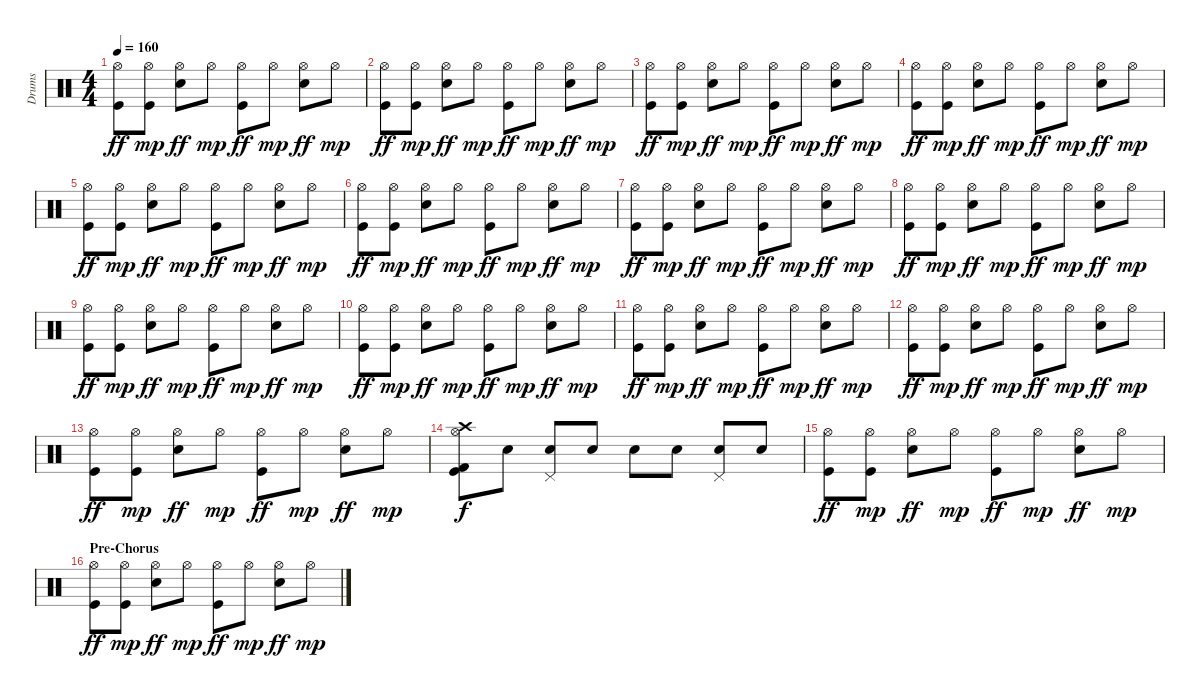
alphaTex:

\track ("Drums" "Drums") {instrument percussion}
\staff {score}
\articulation defaults
\ts (4 4)
\tempo 160
\clef neutral
\ks c
("Kick (hit)" "Hi-Hat (open)").8{dy ff} ("Kick (hit)" "Hi-Hat (open)").8{dy mp} ("Electric Snare (hit)" "Hi-Hat (open)").8{dy ff} "Hi-Hat (open)".8{dy mp} ("Kick (hit)" "Hi-Hat (open)").8{dy ff} "Hi-Hat (open)".8{dy mp} ("Electric Snare (hit)" "Hi-Hat (open)").8{dy ff} "Hi-Hat (open)".8{dy mp} |
("Kick (hit)" "Hi-Hat (open)").8{dy ff} ("Kick (hit)" "Hi-Hat (open)").8{dy mp} ("Electric Snare (hit)" "Hi-Hat (open)").8{dy ff} "Hi-Hat (open)".8{dy mp} ("Kick (hit)" "Hi-Hat (open)").8{dy ff} "Hi-Hat (open)".8{dy mp} ("Electric Snare (hit)" "Hi-Hat (open)").8{dy ff} "Hi-Hat (open)".8{dy mp} |
("Kick (hit)" "Hi-Hat (open)").8{dy ff} ("Kick (hit)" "Hi-Hat (open)").8{dy mp} ("Electric Snare (hit)" "Hi-Hat (open)").8{dy ff} "Hi-Hat (open)".8{dy mp} ("Kick (hit)" "Hi-Hat (open)").8{dy ff} "Hi-Hat (open)".8{dy mp} ("Electric Snare (hit)" "Hi-Hat (open)").8{dy ff} "Hi-Hat (open)".8{dy mp} |
("Kick (hit)" "Hi-Hat (open)").8{dy ff} ("Kick (hit)" "Hi-Hat (open)").8{dy mp} ("Electric Snare (hit)" "Hi-Hat (open)").8{dy ff} "Hi-Hat (open)".8{dy mp} ("Kick (hit)" "Hi-Hat (open)").8{dy ff} "Hi-Hat (open)".8{dy mp} ("Electric Snare (hit)" "Hi-Hat (open)").8{dy ff} "Hi-Hat (open)".8{dy mp} |
("Kick (hit)" "Hi-Hat (open)").8{dy ff} ("Kick (hit)" "Hi-Hat (open)").8{dy mp} ("Electric Snare (hit)" "Hi-Hat (open)").8{dy ff} "Hi-Hat (open)".8{dy mp} ("Kick (hit)" "Hi-Hat (open)").8{dy ff} "Hi-Hat (open)".8{dy mp} ("Electric Snare (hit)" "Hi-Hat (open)").8{dy ff} "Hi-Hat (open)".8{dy mp} |
("Kick (hit)" "Hi-Hat (open)").8{dy ff} ("Kick (hit)" "Hi-Hat (open)").8{dy mp} ("Electric Snare (hit)" "Hi-Hat (open)").8{dy ff} "Hi-Hat (open)".8{dy mp} ("Kick (hit)" "Hi-Hat (open)").8{dy ff} "Hi-Hat (open)".8{dy mp} ("Electric Snare (hit)" "Hi-Hat (open)").8{dy ff} "Hi-Hat (open)".8{dy mp} |
("Kick (hit)" "Hi-Hat (open)").8{dy ff} ("Kick (hit)" "Hi-Hat (open)").8{dy mp} ("Electric Snare (hit)" "Hi-Hat (open)").8{dy ff} "Hi-Hat (open)".8{dy mp} ("Kick (hit)" "Hi-Hat (open)").8{dy ff} "Hi-Hat (open)".8{dy mp} ("Electric Snare (hit)" "Hi-Hat (open)").8{dy ff} "Hi-Hat (open)".8{dy mp} |
("Kick (hit)" "Hi-Hat (open)").8{dy ff} ("Kick (hit)" "Hi-Hat (open)").8{dy mp} ("Electric Snare (hit)" "Hi-Hat (open)").8{dy ff} "Hi-Hat (open)".8{dy mp} ("Kick (hit)" "Hi-Hat (open)").8{dy ff} "Hi-Hat (open)".8{dy mp} ("Electric Snare (hit)" "Hi-Hat (open)").8{dy ff} "Hi-Hat (open)".8{dy mp} |
("Kick (hit)" "Hi-Hat (open)").8{dy ff} ("Kick (hit)" "Hi-Hat (open)").8{dy mp} ("Electric Snare (hit)" "Hi-Hat (open)").8{dy ff} "Hi-Hat (open)".8{dy mp} ("Kick (hit)" "Hi-Hat (open)").8{dy ff} "Hi-Hat (open)".8{dy mp} ("Electric Snare (hit)" "Hi-Hat (open)").8{dy ff} "Hi-Hat (open)".8{dy mp} |
("Kick (hit)" "Hi-Hat (open)").8{dy ff} ("Kick (hit)" "Hi-Hat (open)").8{dy mp} ("Electric Snare (hit)" "Hi-Hat (open)").8{dy ff} "Hi-Hat (open)".8{dy mp} ("Kick (hit)" "Hi-Hat (open)").8{dy ff} "Hi-Hat (open)".8{dy mp} ("Electric Snare (hit)" "Hi-Hat (open)").8{dy ff} "Hi-Hat (open)".8{dy mp} |
("Kick (hit)" "Hi-Hat (open)").8{dy ff} ("Kick (hit)" "Hi-Hat (open)").8{dy mp} ("Electric Snare (hit)" "Hi-Hat (open)").8{dy ff} "Hi-Hat (open)".8{dy mp} ("Kick (hit)" "Hi-Hat (open)").8{dy ff} "Hi-Hat (open)".8{dy mp} ("Electric Snare (hit)" "Hi-Hat (open)").8{dy ff} "Hi-Hat (open)".8{dy mp} |
("Kick (hit)" "Hi-Hat (open)").8{dy ff} ("Kick (hit)" "Hi-Hat (open)").8{dy mp} ("Electric Snare (hit)" "Hi-Hat (open)").8{dy ff} "Hi-Hat (open)".8{dy mp} ("Kick (hit)" "Hi-Hat (open)").8{dy ff} "Hi-Hat (open)".8{dy mp} ("Electric Snare (hit)" "Hi-Hat (open)").8{dy ff} "Hi-Hat (open)".8{dy mp} |
("Kick (hit)" "Hi-Hat (open)").8{dy ff} ("Kick (hit)" "Hi-Hat (open)").8{dy mp} ("Electric Snare (hit)" "Hi-Hat (open)").8{dy ff} "Hi-Hat (open)".8{dy mp} ("Kick (hit)" "Hi-Hat (open)").8{dy ff} "Hi-Hat (open)".8{dy mp} ("Electric Snare (hit)" "Hi-Hat (open)").8{dy ff} "Hi-Hat (open)".8{dy mp} |
("Kick (hit)" "Kick (hit) 2" "Crash high (hit)" "Hi-Hat (open)").8{dy f} "Electric Snare (hit)".8 ("Electric Snare (hit)" "Pedal Hi-Hat (hit)").8 "Electric Snare (hit)".8 "Electric Snare (hit)".8 "Electric Snare (hit)".8 ("Electric Snare (hit)" "Pedal Hi-Hat (hit)").8 "Electric Snare (hit)".8 |
("Kick (hit)" "Hi-Hat (open)").8{dy ff} ("Kick (hit)" "Hi-Hat (open)").8{dy mp} ("Electric Snare (hit)" "Hi-Hat (open)").8{dy ff} "Hi-Hat (open)".8{dy mp} ("Kick (hit)" "Hi-Hat (open)").8{dy ff} "Hi-Hat (open)".8{dy mp} ("Electric Snare (hit)" "Hi-Hat (open)").8{dy ff} "Hi-Hat (open)".8{dy mp} |
\section ("" "Pre-Chorus")
("Kick (hit)" "Hi-Hat (open)").8{dy ff} ("Kick (hit)" "Hi-Hat (open)").8{dy mp} ("Electric Snare (hit)" "Hi-Hat (open)").8{dy ff} "Hi-Hat (open)".8{dy mp} ("Kick (hit)" "Hi-Hat (open)").8{dy ff} "Hi-Hat (open)".8{dy mp} ("Electric Snare (hit)" "Hi-Hat (open)").8{dy ff} "Hi-Hat (open)".8{dy mp}
